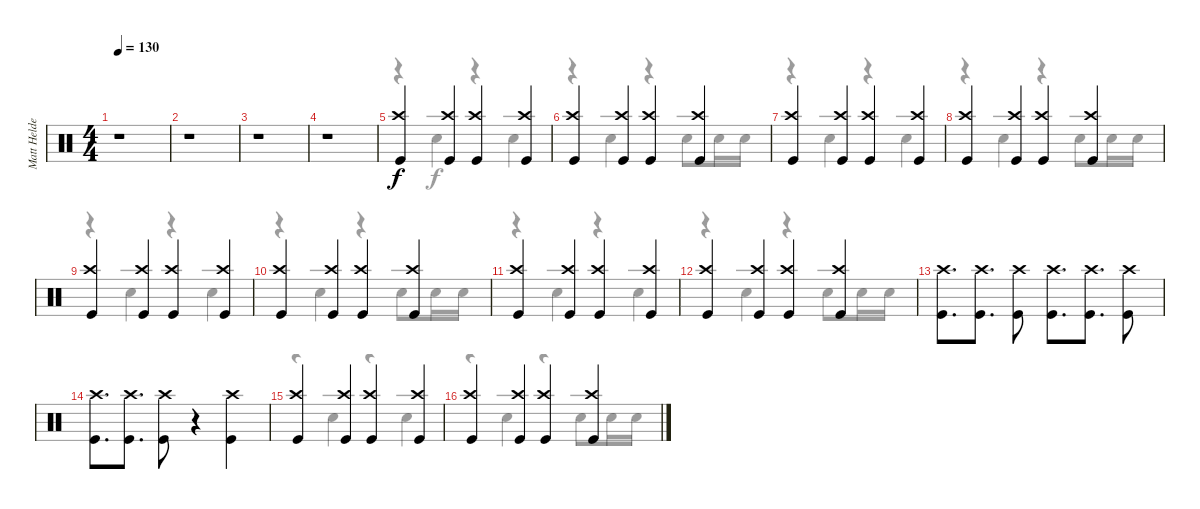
\track ("Matt Helders (Drums)" "Matt Helde") {instrument percussion}
\staff {score}
\articulation defaults
\voice
\ts (4 4)
\tempo 130
\clef neutral
\ks c
r.1{dy f} |
r.1 |
r.1 |
r.1 |
("Crash high (hit)" "Kick (hit)").4 ("Crash high (hit)" "Kick (hit)").4 ("Crash high (hit)" "Kick (hit)").4 ("Crash high (hit)" "Kick (hit)").4 |
("Crash high (hit)" "Kick (hit)").4 ("Crash high (hit)" "Kick (hit)").4 ("Crash high (hit)" "Kick (hit)").4 ("Crash high (hit)" "Kick (hit)").4 |
("Crash high (hit)" "Kick (hit)").4 ("Crash high (hit)" "Kick (hit)").4 ("Crash high (hit)" "Kick (hit)").4 ("Crash high (hit)" "Kick (hit)").4 |
("Crash high (hit)" "Kick (hit)").4 ("Crash high (hit)" "Kick (hit)").4 ("Crash high (hit)" "Kick (hit)").4 ("Crash high (hit)" "Kick (hit)").4 |
("Crash high (hit)" "Kick (hit)").4 ("Crash high (hit)" "Kick (hit)").4 ("Crash high (hit)" "Kick (hit)").4 ("Crash high (hit)" "Kick (hit)").4 |
("Crash high (hit)" "Kick (hit)").4 ("Crash high (hit)" "Kick (hit)").4 ("Crash high (hit)" "Kick (hit)").4 ("Crash high (hit)" "Kick (hit)").4 |
("Crash high (hit)" "Kick (hit)").4 ("Crash high (hit)" "Kick (hit)").4 ("Crash high (hit)" "Kick (hit)").4 ("Crash high (hit)" "Kick (hit)").4 |
("Crash high (hit)" "Kick (hit)").4 ("Crash high (hit)" "Kick (hit)").4 ("Crash high (hit)" "Kick (hit)").4 ("Crash high (hit)" "Kick (hit)").4 |
("Crash high (hit)" "Kick (hit)").8{d} ("Crash high (hit)" "Kick (hit)").8{d} ("Crash high (hit)" "Kick (hit)").8 ("Crash high (hit)" "Kick (hit)").8{d} ("Crash high (hit)" "Kick (hit)").8{d} ("Crash high (hit)" "Kick (hit)").8 |
("Crash high (hit)" "Kick (hit)").8{d} ("Crash high (hit)" "Kick (hit)").8{d} ("Crash high (hit)" "Kick (hit)").8 r.4 ("Crash high (hit)" "Kick (hit)").4 |
("Crash high (hit)" "Kick (hit)").4 ("Crash high (hit)" "Kick (hit)").4 ("Crash high (hit)" "Kick (hit)").4 ("Crash high (hit)" "Kick (hit)").4 |
("Crash high (hit)" "Kick (hit)").4 ("Crash high (hit)" "Kick (hit)").4 ("Crash high (hit)" "Kick (hit)").4 ("Crash high (hit)" "Kick (hit)").4
\voice
\clef neutral
\ottava regular
\simile none
\ks c
|
|
|
|
r.4 "Snare (hit) 2".4 r.4 "Snare (hit) 2".4 |
r.4 "Snare (hit) 2".4 r.4 "Snare (hit) 2".8 "Snare (hit) 2".16 "Snare (hit) 2".16 |
r.4 "Snare (hit) 2".4 r.4 "Snare (hit) 2".4 |
r.4 "Snare (hit) 2".4 r.4 "Snare (hit) 2".8 "Snare (hit) 2".16 "Snare (hit) 2".16 |
r.4 "Snare (hit) 2".4 r.4 "Snare (hit) 2".4 |
r.4 "Snare (hit) 2".4 r.4 "Snare (hit) 2".8 "Snare (hit) 2".16 "Snare (hit) 2".16 |
r.4 "Snare (hit) 2".4 r.4 "Snare (hit) 2".4 |
r.4 "Snare (hit) 2".4 r.4 "Snare (hit) 2".8 "Snare (hit) 2".16 "Snare (hit) 2".16 |
|
|
r.4 "Snare (hit) 2".4 r.4 "Snare (hit) 2".4 |
r.4 "Snare (hit) 2".4 r.4 "Snare (hit) 2".8 "Snare (hit) 2".16 "Snare (hit) 2".16
